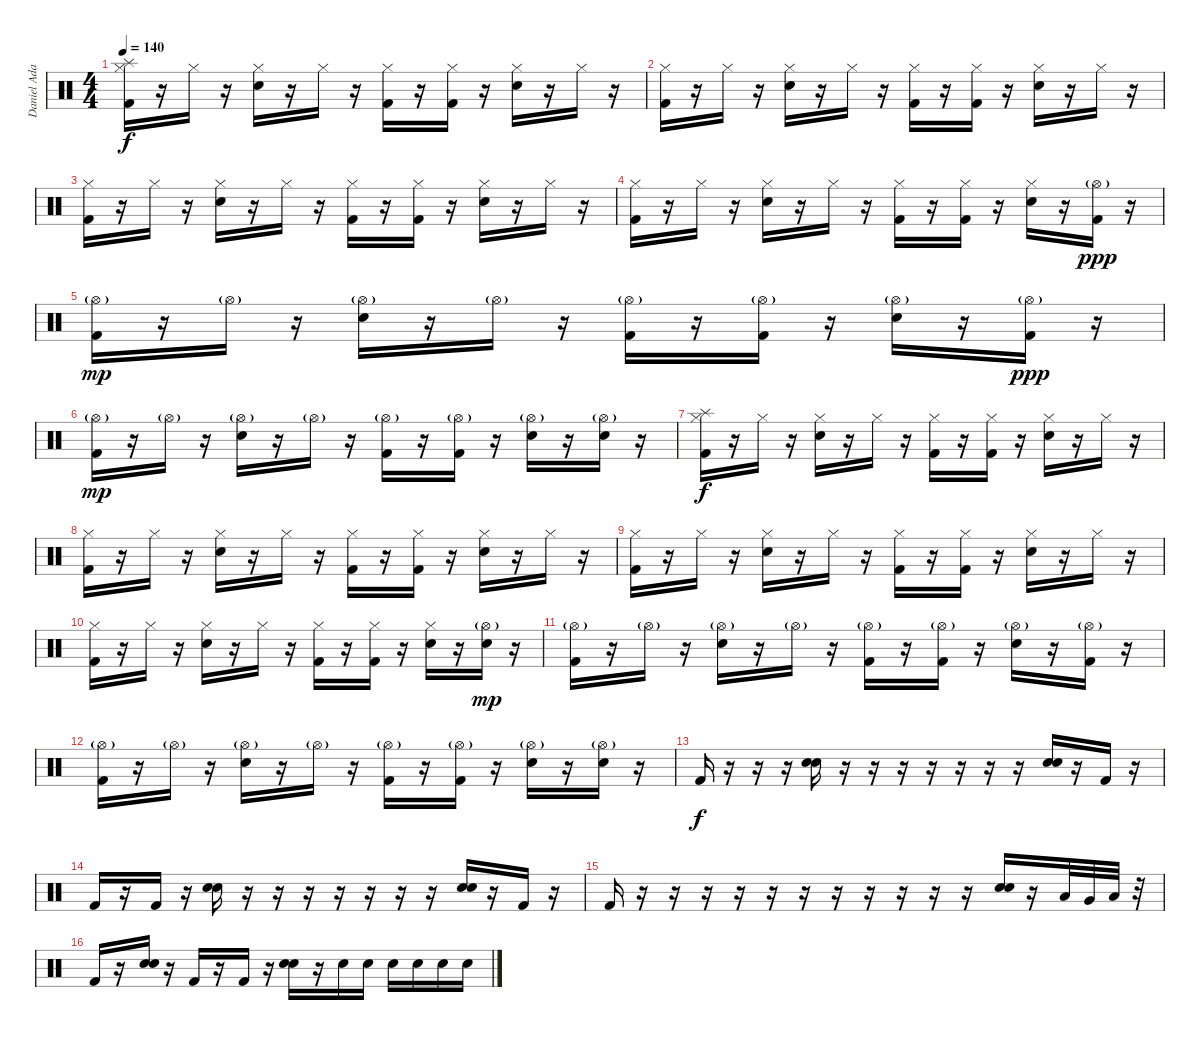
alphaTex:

\track ("Daniel Adair" "Daniel Ada") {instrument percussion}
\staff {score}
\articulation defaults
\ts (4 4)
\tempo 140
\clef neutral
\ks c
("Splash (hit)" "Hi-Hat (closed)" "Kick (hit) 2").16{dy f} r.16 "Hi-Hat (closed)".16 r.16 ("Hi-Hat (closed)" "Snare (hit) 2").16 r.16 "Hi-Hat (closed)".16 r.16 ("Hi-Hat (closed)" "Kick (hit) 2").16 r.16 ("Hi-Hat (closed)" "Kick (hit) 2").16 r.16 ("Hi-Hat (closed)" "Snare (hit) 2").16 r.16 "Hi-Hat (closed)".16 r.16 |
("Hi-Hat (closed)" "Kick (hit) 2").16 r.16 "Hi-Hat (closed)".16 r.16 ("Hi-Hat (closed)" "Snare (hit) 2").16 r.16 "Hi-Hat (closed)".16 r.16 ("Hi-Hat (closed)" "Kick (hit) 2").16 r.16 ("Hi-Hat (closed)" "Kick (hit) 2").16 r.16 ("Hi-Hat (closed)" "Snare (hit) 2").16 r.16 "Hi-Hat (closed)".16 r.16 |
("Hi-Hat (closed)" "Kick (hit) 2").16 r.16 "Hi-Hat (closed)".16 r.16 ("Hi-Hat (closed)" "Snare (hit) 2").16 r.16 "Hi-Hat (closed)".16 r.16 ("Hi-Hat (closed)" "Kick (hit) 2").16 r.16 ("Hi-Hat (closed)" "Kick (hit) 2").16 r.16 ("Hi-Hat (closed)" "Snare (hit) 2").16 r.16 "Hi-Hat (closed)".16 r.16 |
("Hi-Hat (closed)" "Kick (hit) 2").16 r.16 "Hi-Hat (closed)".16 r.16 ("Hi-Hat (closed)" "Snare (hit) 2").16 r.16 "Hi-Hat (closed)".16 r.16 ("Hi-Hat (closed)" "Kick (hit) 2").16 r.16 ("Hi-Hat (closed)" "Kick (hit) 2").16 r.16 ("Hi-Hat (closed)" "Snare (hit) 2").16 r.16 ("Hi-Hat (open)"{g} "Kick (hit) 2").16{dy ppp} r.16 |
("Hi-Hat (open)"{g} "Kick (hit) 2").16{dy mp} r.16 "Hi-Hat (open)"{g}.16 r.16 ("Hi-Hat (open)"{g} "Snare (hit) 2").16 r.16 "Hi-Hat (open)"{g}.16 r.16 ("Hi-Hat (open)"{g} "Kick (hit) 2").16 r.16 ("Hi-Hat (open)"{g} "Kick (hit) 2").16 r.16 ("Hi-Hat (open)"{g} "Snare (hit) 2").16 r.16 ("Hi-Hat (open)"{g} "Kick (hit) 2").16{dy ppp} r.16 |
("Hi-Hat (open)"{g} "Kick (hit) 2").16{dy mp} r.16 "Hi-Hat (open)"{g}.16 r.16 ("Hi-Hat (open)"{g} "Snare (hit) 2").16 r.16 "Hi-Hat (open)"{g}.16 r.16 ("Hi-Hat (open)"{g} "Kick (hit) 2").16 r.16 ("Hi-Hat (open)"{g} "Kick (hit) 2").16 r.16 ("Hi-Hat (open)"{g} "Snare (hit) 2").16 r.16 ("Hi-Hat (open)"{g} "Snare (hit) 2").16 r.16 |
("Splash (hit)" "Hi-Hat (closed)" "Kick (hit) 2").16{dy f} r.16 "Hi-Hat (closed)".16 r.16 ("Hi-Hat (closed)" "Snare (hit) 2").16 r.16 "Hi-Hat (closed)".16 r.16 ("Hi-Hat (closed)" "Kick (hit) 2").16 r.16 ("Hi-Hat (closed)" "Kick (hit) 2").16 r.16 ("Hi-Hat (closed)" "Snare (hit) 2").16 r.16 "Hi-Hat (closed)".16 r.16 |
("Hi-Hat (closed)" "Kick (hit) 2").16 r.16 "Hi-Hat (closed)".16 r.16 ("Hi-Hat (closed)" "Snare (hit) 2").16 r.16 "Hi-Hat (closed)".16 r.16 ("Hi-Hat (closed)" "Kick (hit) 2").16 r.16 ("Hi-Hat (closed)" "Kick (hit) 2").16 r.16 ("Hi-Hat (closed)" "Snare (hit) 2").16 r.16 "Hi-Hat (closed)".16 r.16 |
("Hi-Hat (closed)" "Kick (hit) 2").16 r.16 "Hi-Hat (closed)".16 r.16 ("Hi-Hat (closed)" "Snare (hit) 2").16 r.16 "Hi-Hat (closed)".16 r.16 ("Hi-Hat (closed)" "Kick (hit) 2").16 r.16 ("Hi-Hat (closed)" "Kick (hit) 2").16 r.16 ("Hi-Hat (closed)" "Snare (hit) 2").16 r.16 "Hi-Hat (closed)".16 r.16 |
("Hi-Hat (closed)" "Kick (hit) 2").16 r.16 "Hi-Hat (closed)".16 r.16 ("Hi-Hat (closed)" "Snare (hit) 2").16 r.16 "Hi-Hat (closed)".16 r.16 ("Hi-Hat (closed)" "Kick (hit) 2").16 r.16 ("Hi-Hat (closed)" "Kick (hit) 2").16 r.16 ("Hi-Hat (closed)" "Snare (hit) 2").16 r.16 ("Hi-Hat (open)"{g} "Snare (hit) 2").16{dy mp} r.16 |
("Hi-Hat (open)"{g} "Kick (hit) 2").16 r.16 "Hi-Hat (open)"{g}.16 r.16 ("Hi-Hat (open)"{g} "Snare (hit) 2").16 r.16 "Hi-Hat (open)"{g}.16 r.16 ("Hi-Hat (open)"{g} "Kick (hit) 2").16 r.16 ("Hi-Hat (open)"{g} "Kick (hit) 2").16 r.16 ("Hi-Hat (open)"{g} "Snare (hit) 2").16 r.16 ("Hi-Hat (open)"{g} "Kick (hit) 2").16 r.16 |
("Hi-Hat (open)"{g} "Kick (hit) 2").16 r.16 "Hi-Hat (open)"{g}.16 r.16 ("Hi-Hat (open)"{g} "Snare (hit) 2").16 r.16 "Hi-Hat (open)"{g}.16 r.16 ("Hi-Hat (open)"{g} "Kick (hit) 2").16 r.16 ("Hi-Hat (open)"{g} "Kick (hit) 2").16 r.16 ("Hi-Hat (open)"{g} "Snare (hit) 2").16 r.16 ("Hi-Hat (open)"{g} "Snare (hit) 2").16 r.16 |
"Kick (hit) 2".16{dy f} r.16 r.16 r.16 ("Snare (hit) 2" "Snare (hit) 2").16 r.16 r.16 r.16 r.16 r.16 r.16 r.16 ("Snare (hit) 2" "Snare (hit) 2").16 r.16 "Kick (hit) 2".16 r.16 |
"Kick (hit) 2".16 r.16 "Kick (hit) 2".16 r.16 ("Snare (hit) 2" "Snare (hit) 2").16 r.16 r.16 r.16 r.16 r.16 r.16 r.16 ("Snare (hit) 2" "Snare (hit) 2").16 r.16 "Kick (hit) 2".16 r.16 |
"Kick (hit) 2".16 r.16 r.16 r.16 r.16 r.16 r.16 r.16 r.16 r.16 r.16 r.16 ("Snare (hit) 2" "Snare (hit) 2").16 r.16 "Low Tom (hit)".32 "Very Low Tom (hit)".32 "Low Floor Tom (hit)".32 r.32 |
"Kick (hit) 2".16 r.16 ("Snare (hit) 2" "Snare (hit) 2").16 r.16 "Kick (hit) 2".16 r.16 "Kick (hit) 2".16 r.16 ("Snare (hit) 2" "Snare (hit) 2").16 r.16 "Snare (hit) 2".16 "Snare (hit) 2".16 "Snare (hit) 2".16 "Snare (hit) 2".16 "Snare (hit) 2".16 "Snare (hit) 2".16
